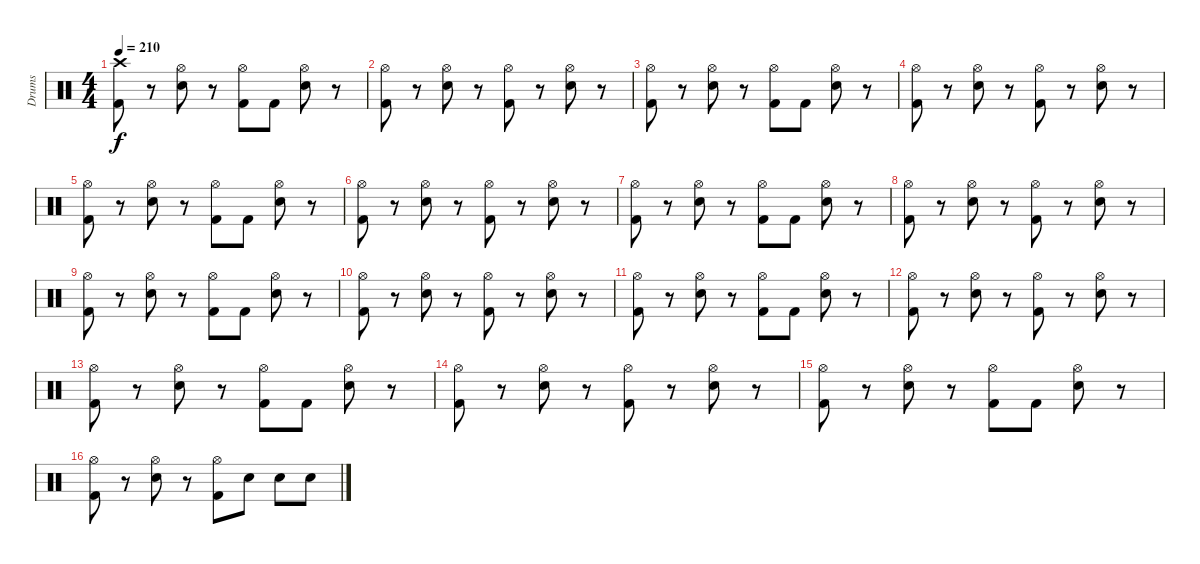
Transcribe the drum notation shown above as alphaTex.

\track ("Drums" "Drums") {instrument percussion}
\staff {score}
\articulation defaults
\ts (4 4)
\tempo 210
\clef neutral
\ks c
("Crash high (hit)" "Kick (hit) 2").8{dy f} r.8 ("Hi-Hat (open)" "Electric Snare (hit)").8 r.8 ("Hi-Hat (open)" "Kick (hit) 2").8 "Kick (hit) 2".8 ("Hi-Hat (open)" "Electric Snare (hit)").8 r.8 |
("Hi-Hat (open)" "Kick (hit) 2").8 r.8 ("Hi-Hat (open)" "Electric Snare (hit)").8 r.8 ("Hi-Hat (open)" "Kick (hit) 2").8 r.8 ("Hi-Hat (open)" "Electric Snare (hit)").8 r.8 |
("Hi-Hat (open)" "Kick (hit) 2").8 r.8 ("Hi-Hat (open)" "Electric Snare (hit)").8 r.8 ("Hi-Hat (open)" "Kick (hit) 2").8 "Kick (hit) 2".8 ("Hi-Hat (open)" "Electric Snare (hit)").8 r.8 |
("Hi-Hat (open)" "Kick (hit) 2").8 r.8 ("Hi-Hat (open)" "Electric Snare (hit)").8 r.8 ("Hi-Hat (open)" "Kick (hit) 2").8 r.8 ("Hi-Hat (open)" "Electric Snare (hit)").8 r.8 |
("Hi-Hat (open)" "Kick (hit) 2").8 r.8 ("Hi-Hat (open)" "Electric Snare (hit)").8 r.8 ("Hi-Hat (open)" "Kick (hit) 2").8 "Kick (hit) 2".8 ("Hi-Hat (open)" "Electric Snare (hit)").8 r.8 |
("Hi-Hat (open)" "Kick (hit) 2").8 r.8 ("Hi-Hat (open)" "Electric Snare (hit)").8 r.8 ("Hi-Hat (open)" "Kick (hit) 2").8 r.8 ("Hi-Hat (open)" "Electric Snare (hit)").8 r.8 |
("Hi-Hat (open)" "Kick (hit) 2").8 r.8 ("Hi-Hat (open)" "Electric Snare (hit)").8 r.8 ("Hi-Hat (open)" "Kick (hit) 2").8 "Kick (hit) 2".8 ("Hi-Hat (open)" "Electric Snare (hit)").8 r.8 |
("Hi-Hat (open)" "Kick (hit) 2").8 r.8 ("Hi-Hat (open)" "Electric Snare (hit)").8 r.8 ("Hi-Hat (open)" "Kick (hit) 2").8 r.8 ("Hi-Hat (open)" "Electric Snare (hit)").8 r.8 |
("Hi-Hat (open)" "Kick (hit) 2").8 r.8 ("Hi-Hat (open)" "Electric Snare (hit)").8 r.8 ("Hi-Hat (open)" "Kick (hit) 2").8 "Kick (hit) 2".8 ("Hi-Hat (open)" "Electric Snare (hit)").8 r.8 |
("Hi-Hat (open)" "Kick (hit) 2").8 r.8 ("Hi-Hat (open)" "Electric Snare (hit)").8 r.8 ("Hi-Hat (open)" "Kick (hit) 2").8 r.8 ("Hi-Hat (open)" "Electric Snare (hit)").8 r.8 |
("Hi-Hat (open)" "Kick (hit) 2").8 r.8 ("Hi-Hat (open)" "Electric Snare (hit)").8 r.8 ("Hi-Hat (open)" "Kick (hit) 2").8 "Kick (hit) 2".8 ("Hi-Hat (open)" "Electric Snare (hit)").8 r.8 |
("Hi-Hat (open)" "Kick (hit) 2").8 r.8 ("Hi-Hat (open)" "Electric Snare (hit)").8 r.8 ("Hi-Hat (open)" "Kick (hit) 2").8 r.8 ("Hi-Hat (open)" "Electric Snare (hit)").8 r.8 |
("Hi-Hat (open)" "Kick (hit) 2").8 r.8 ("Hi-Hat (open)" "Electric Snare (hit)").8 r.8 ("Hi-Hat (open)" "Kick (hit) 2").8 "Kick (hit) 2".8 ("Hi-Hat (open)" "Electric Snare (hit)").8 r.8 |
("Hi-Hat (open)" "Kick (hit) 2").8 r.8 ("Hi-Hat (open)" "Electric Snare (hit)").8 r.8 ("Hi-Hat (open)" "Kick (hit) 2").8 r.8 ("Hi-Hat (open)" "Electric Snare (hit)").8 r.8 |
("Hi-Hat (open)" "Kick (hit) 2").8 r.8 ("Hi-Hat (open)" "Electric Snare (hit)").8 r.8 ("Hi-Hat (open)" "Kick (hit) 2").8 "Kick (hit) 2".8 ("Hi-Hat (open)" "Electric Snare (hit)").8 r.8 |
("Hi-Hat (open)" "Kick (hit) 2").8 r.8 ("Hi-Hat (open)" "Electric Snare (hit)").8 r.8 ("Hi-Hat (open)" "Kick (hit) 2").8 "Electric Snare (hit)".8 "Electric Snare (hit)".8 "Electric Snare (hit)".8
